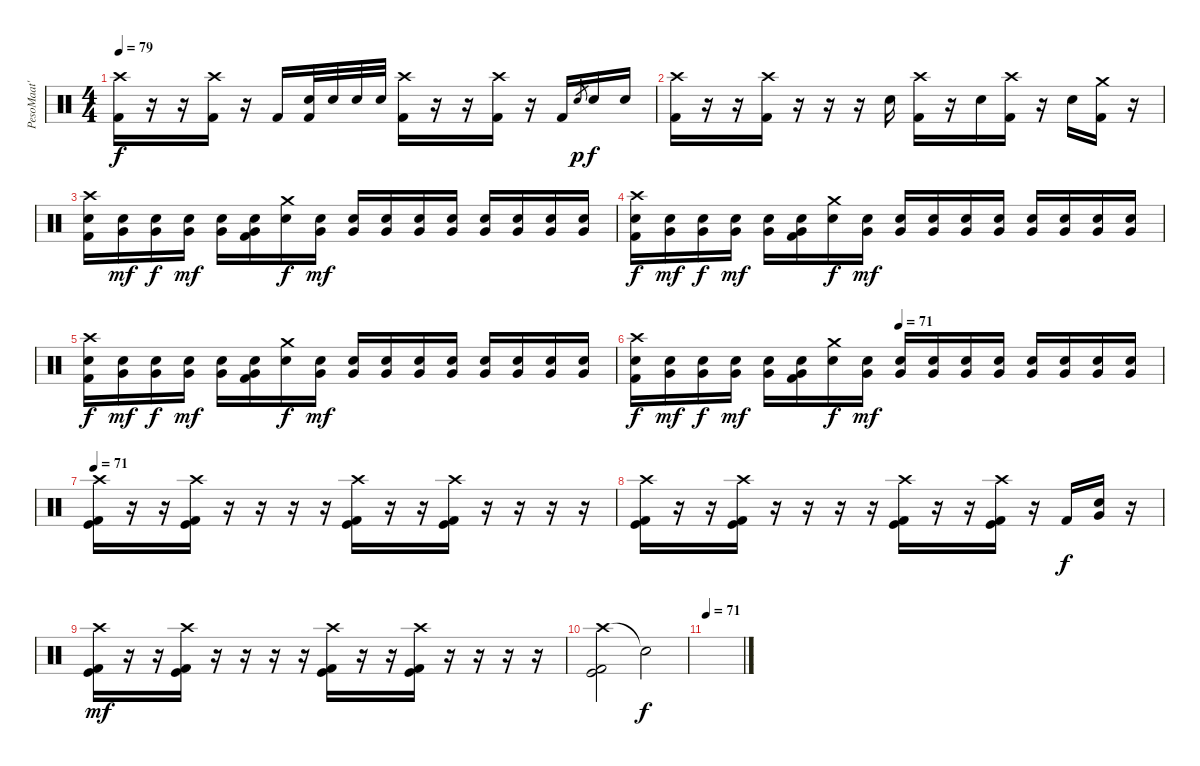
\track ("PesoMaat' us" "PesoMaat' ") {instrument percussion}
\staff {score}
\articulation defaults
\ts (4 4)
\tempo 79
\clef neutral
\ks c
("Crash high (hit)" "Kick (hit) 2").16{dy f} r.16 r.16 ("Crash high (hit)" "Kick (hit) 2").16 r.16 "Kick (hit) 2".16 ("Electric Snare (hit)" "Kick (hit) 2").32 "Electric Snare (hit)".32 "Electric Snare (hit)".32 "Electric Snare (hit)".32 ("Crash high (hit)" "Kick (hit) 2").16 r.16 r.16 ("Crash high (hit)" "Kick (hit) 2").16 r.16 "Kick (hit) 2".16 "Electric Snare (hit)".8{gr dy p} "Electric Snare (hit)".16{dy f} "Electric Snare (hit)".16 |
("Crash high (hit)" "Kick (hit) 2").16 r.16 r.16 ("Crash high (hit)" "Kick (hit) 2").16 r.16 r.16 r.16 "Electric Snare (hit)".16 ("Crash high (hit)" "Kick (hit) 2").16 r.16 "Electric Snare (hit)".16 ("Crash high (hit)" "Kick (hit) 2").16 r.16 "Electric Snare (hit)".16 ("Crash medium (hit)" "Kick (hit) 2").16 r.16 |
("Crash high (hit)" "Electric Snare (hit)" "Kick (hit) 2").16 ("Electric Snare (hit)" "Very Low Tom (hit)").16{dy mf} ("Electric Snare (hit)" "Very Low Tom (hit)").16{dy f} ("Electric Snare (hit)" "Very Low Tom (hit)").16{dy mf} ("Electric Snare (hit)" "Very Low Tom (hit)").16 ("Electric Snare (hit)" "Very Low Tom (hit)" "Kick (hit) 2").16 ("Crash medium (hit)" "Electric Snare (hit)").16{dy f} ("Electric Snare (hit)" "Very Low Tom (hit)").16{dy mf} ("Electric Snare (hit)" "Very Low Tom (hit)").16 ("Electric Snare (hit)" "Very Low Tom (hit)").16 ("Electric Snare (hit)" "Very Low Tom (hit)").16 ("Electric Snare (hit)" "Very Low Tom (hit)").16 ("Electric Snare (hit)" "Very Low Tom (hit)").16 ("Electric Snare (hit)" "Very Low Tom (hit)").16 ("Electric Snare (hit)" "Very Low Tom (hit)").16 ("Electric Snare (hit)" "Very Low Tom (hit)").16 |
("Crash high (hit)" "Electric Snare (hit)" "Kick (hit) 2").16{dy f} ("Electric Snare (hit)" "Very Low Tom (hit)").16{dy mf} ("Electric Snare (hit)" "Very Low Tom (hit)").16{dy f} ("Electric Snare (hit)" "Very Low Tom (hit)").16{dy mf} ("Electric Snare (hit)" "Very Low Tom (hit)").16 ("Electric Snare (hit)" "Very Low Tom (hit)" "Kick (hit) 2").16 ("Crash medium (hit)" "Electric Snare (hit)").16{dy f} ("Electric Snare (hit)" "Very Low Tom (hit)").16{dy mf} ("Electric Snare (hit)" "Very Low Tom (hit)").16 ("Electric Snare (hit)" "Very Low Tom (hit)").16 ("Electric Snare (hit)" "Very Low Tom (hit)").16 ("Electric Snare (hit)" "Very Low Tom (hit)").16 ("Electric Snare (hit)" "Very Low Tom (hit)").16 ("Electric Snare (hit)" "Very Low Tom (hit)").16 ("Electric Snare (hit)" "Very Low Tom (hit)").16 ("Electric Snare (hit)" "Very Low Tom (hit)").16 |
("Crash high (hit)" "Electric Snare (hit)" "Kick (hit) 2").16{dy f} ("Electric Snare (hit)" "Very Low Tom (hit)").16{dy mf} ("Electric Snare (hit)" "Very Low Tom (hit)").16{dy f} ("Electric Snare (hit)" "Very Low Tom (hit)").16{dy mf} ("Electric Snare (hit)" "Very Low Tom (hit)").16 ("Electric Snare (hit)" "Very Low Tom (hit)" "Kick (hit) 2").16 ("Crash medium (hit)" "Electric Snare (hit)").16{dy f} ("Electric Snare (hit)" "Very Low Tom (hit)").16{dy mf} ("Electric Snare (hit)" "Very Low Tom (hit)").16 ("Electric Snare (hit)" "Very Low Tom (hit)").16 ("Electric Snare (hit)" "Very Low Tom (hit)").16 ("Electric Snare (hit)" "Very Low Tom (hit)").16 ("Electric Snare (hit)" "Very Low Tom (hit)").16 ("Electric Snare (hit)" "Very Low Tom (hit)").16 ("Electric Snare (hit)" "Very Low Tom (hit)").16 ("Electric Snare (hit)" "Very Low Tom (hit)").16 |
\tempo (71 0.5)
("Crash high (hit)" "Electric Snare (hit)" "Kick (hit) 2").16{dy f} ("Electric Snare (hit)" "Very Low Tom (hit)").16{dy mf} ("Electric Snare (hit)" "Very Low Tom (hit)").16{dy f} ("Electric Snare (hit)" "Very Low Tom (hit)").16{dy mf} ("Electric Snare (hit)" "Very Low Tom (hit)").16 ("Electric Snare (hit)" "Very Low Tom (hit)" "Kick (hit) 2").16 ("Crash medium (hit)" "Electric Snare (hit)").16{dy f} ("Electric Snare (hit)" "Very Low Tom (hit)").16{dy mf} ("Electric Snare (hit)" "Very Low Tom (hit)").16 ("Electric Snare (hit)" "Very Low Tom (hit)").16 ("Electric Snare (hit)" "Very Low Tom (hit)").16 ("Electric Snare (hit)" "Very Low Tom (hit)").16 ("Electric Snare (hit)" "Very Low Tom (hit)").16 ("Electric Snare (hit)" "Very Low Tom (hit)").16 ("Electric Snare (hit)" "Very Low Tom (hit)").16 ("Electric Snare (hit)" "Very Low Tom (hit)").16 |
\tempo 71
("Crash high (hit)" "Kick (hit)" "Kick (hit) 2").16 r.16 r.16 ("Crash high (hit)" "Kick (hit)" "Kick (hit) 2").16 r.16 r.16 r.16 r.16 ("Crash high (hit)" "Kick (hit)" "Kick (hit) 2").16 r.16 r.16 ("Crash high (hit)" "Kick (hit)" "Kick (hit) 2").16 r.16 r.16 r.16 r.16 |
("Crash high (hit)" "Kick (hit)" "Kick (hit) 2").16 r.16 r.16 ("Crash high (hit)" "Kick (hit)" "Kick (hit) 2").16 r.16 r.16 r.16 r.16 ("Crash high (hit)" "Kick (hit)" "Kick (hit) 2").16 r.16 r.16 ("Crash high (hit)" "Kick (hit)" "Kick (hit) 2").16 r.16 "Kick (hit) 2".16{dy f} ("Electric Snare (hit)" "Very Low Tom (hit)").16 r.16 |
("Crash high (hit)" "Kick (hit)" "Kick (hit) 2").16{dy mf} r.16 r.16 ("Crash high (hit)" "Kick (hit)" "Kick (hit) 2").16 r.16 r.16 r.16 r.16 ("Crash high (hit)" "Kick (hit)" "Kick (hit) 2").16 r.16 r.16 ("Crash high (hit)" "Kick (hit)" "Kick (hit) 2").16 r.16 r.16 r.16 r.16 |
("Crash high (hit)" "Kick (hit)" "Kick (hit) 2").2 "Snare (hit)"{t}.2{dy f} |
\tempo 71
